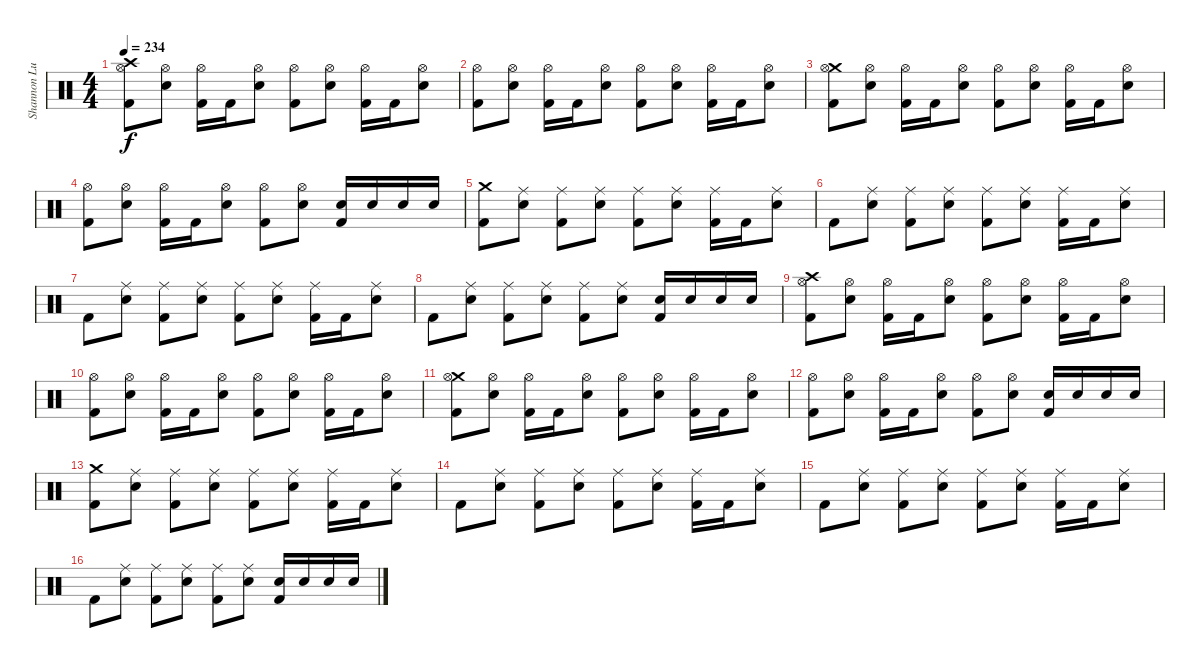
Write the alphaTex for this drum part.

\track ("Shannon Lucas (Drums)" "Shannon Lu") {instrument percussion}
\staff {score}
\articulation defaults
\ts (4 4)
\tempo 234
\clef neutral
\ks c
("Crash high (hit)" "Hi-Hat (open)" "Kick (hit) 2").8{dy f} ("Hi-Hat (open)" "Electric Snare (hit)").8 ("Hi-Hat (open)" "Kick (hit) 2").16 "Kick (hit) 2".16 ("Hi-Hat (open)" "Electric Snare (hit)").8 ("Hi-Hat (open)" "Kick (hit) 2").8 ("Hi-Hat (open)" "Electric Snare (hit)").8 ("Hi-Hat (open)" "Kick (hit) 2").16 "Kick (hit) 2".16 ("Hi-Hat (open)" "Electric Snare (hit)").8 |
("Hi-Hat (open)" "Kick (hit) 2").8 ("Hi-Hat (open)" "Electric Snare (hit)").8 ("Hi-Hat (open)" "Kick (hit) 2").16 "Kick (hit) 2".16 ("Hi-Hat (open)" "Electric Snare (hit)").8 ("Hi-Hat (open)" "Kick (hit) 2").8 ("Hi-Hat (open)" "Electric Snare (hit)").8 ("Hi-Hat (open)" "Kick (hit) 2").16 "Kick (hit) 2".16 ("Hi-Hat (open)" "Electric Snare (hit)").8 |
("Crash medium (hit)" "Hi-Hat (open)" "Kick (hit) 2").8 ("Hi-Hat (open)" "Electric Snare (hit)").8 ("Hi-Hat (open)" "Kick (hit) 2").16 "Kick (hit) 2".16 ("Hi-Hat (open)" "Electric Snare (hit)").8 ("Hi-Hat (open)" "Kick (hit) 2").8 ("Hi-Hat (open)" "Electric Snare (hit)").8 ("Hi-Hat (open)" "Kick (hit) 2").16 "Kick (hit) 2".16 ("Hi-Hat (open)" "Electric Snare (hit)").8 |
("Hi-Hat (open)" "Kick (hit) 2").8 ("Hi-Hat (open)" "Electric Snare (hit)").8 ("Hi-Hat (open)" "Kick (hit) 2").16 "Kick (hit) 2".16 ("Hi-Hat (open)" "Electric Snare (hit)").8 ("Hi-Hat (open)" "Kick (hit) 2").8 ("Hi-Hat (open)" "Electric Snare (hit)").8 ("Electric Snare (hit)" "Kick (hit) 2").16 "Electric Snare (hit)".16 "Electric Snare (hit)".16 "Electric Snare (hit)".16 |
("Crash medium (hit)" "Kick (hit) 2").8 ("Ride (middle)" "Electric Snare (hit)").8 ("Ride (middle)" "Kick (hit) 2").8 ("Ride (middle)" "Electric Snare (hit)").8 ("Ride (middle)" "Kick (hit) 2").8 ("Ride (middle)" "Electric Snare (hit)").8 ("Ride (middle)" "Kick (hit) 2").16 "Kick (hit) 2".16 ("Ride (middle)" "Electric Snare (hit)").8 |
"Kick (hit) 2".8 ("Ride (middle)" "Electric Snare (hit)").8 ("Ride (middle)" "Kick (hit) 2").8 ("Ride (middle)" "Electric Snare (hit)").8 ("Ride (middle)" "Kick (hit) 2").8 ("Ride (middle)" "Electric Snare (hit)").8 ("Ride (middle)" "Kick (hit) 2").16 "Kick (hit) 2".16 ("Ride (middle)" "Electric Snare (hit)").8 |
"Kick (hit) 2".8 ("Ride (middle)" "Electric Snare (hit)").8 ("Ride (middle)" "Kick (hit) 2").8 ("Ride (middle)" "Electric Snare (hit)").8 ("Ride (middle)" "Kick (hit) 2").8 ("Ride (middle)" "Electric Snare (hit)").8 ("Ride (middle)" "Kick (hit) 2").16 "Kick (hit) 2".16 ("Ride (middle)" "Electric Snare (hit)").8 |
"Kick (hit) 2".8 ("Ride (middle)" "Electric Snare (hit)").8 ("Ride (middle)" "Kick (hit) 2").8 ("Ride (middle)" "Electric Snare (hit)").8 ("Ride (middle)" "Kick (hit) 2").8 ("Ride (middle)" "Electric Snare (hit)").8 ("Electric Snare (hit)" "Kick (hit) 2").16 "Electric Snare (hit)".16 "Electric Snare (hit)".16 "Electric Snare (hit)".16 |
("Crash high (hit)" "Hi-Hat (open)" "Kick (hit) 2").8 ("Hi-Hat (open)" "Electric Snare (hit)").8 ("Hi-Hat (open)" "Kick (hit) 2").16 "Kick (hit) 2".16 ("Hi-Hat (open)" "Electric Snare (hit)").8 ("Hi-Hat (open)" "Kick (hit) 2").8 ("Hi-Hat (open)" "Electric Snare (hit)").8 ("Hi-Hat (open)" "Kick (hit) 2").16 "Kick (hit) 2".16 ("Hi-Hat (open)" "Electric Snare (hit)").8 |
("Hi-Hat (open)" "Kick (hit) 2").8 ("Hi-Hat (open)" "Electric Snare (hit)").8 ("Hi-Hat (open)" "Kick (hit) 2").16 "Kick (hit) 2".16 ("Hi-Hat (open)" "Electric Snare (hit)").8 ("Hi-Hat (open)" "Kick (hit) 2").8 ("Hi-Hat (open)" "Electric Snare (hit)").8 ("Hi-Hat (open)" "Kick (hit) 2").16 "Kick (hit) 2".16 ("Hi-Hat (open)" "Electric Snare (hit)").8 |
("Crash medium (hit)" "Hi-Hat (open)" "Kick (hit) 2").8 ("Hi-Hat (open)" "Electric Snare (hit)").8 ("Hi-Hat (open)" "Kick (hit) 2").16 "Kick (hit) 2".16 ("Hi-Hat (open)" "Electric Snare (hit)").8 ("Hi-Hat (open)" "Kick (hit) 2").8 ("Hi-Hat (open)" "Electric Snare (hit)").8 ("Hi-Hat (open)" "Kick (hit) 2").16 "Kick (hit) 2".16 ("Hi-Hat (open)" "Electric Snare (hit)").8 |
("Hi-Hat (open)" "Kick (hit) 2").8 ("Hi-Hat (open)" "Electric Snare (hit)").8 ("Hi-Hat (open)" "Kick (hit) 2").16 "Kick (hit) 2".16 ("Hi-Hat (open)" "Electric Snare (hit)").8 ("Hi-Hat (open)" "Kick (hit) 2").8 ("Hi-Hat (open)" "Electric Snare (hit)").8 ("Electric Snare (hit)" "Kick (hit) 2").16 "Electric Snare (hit)".16 "Electric Snare (hit)".16 "Electric Snare (hit)".16 |
("Crash medium (hit)" "Kick (hit) 2").8 ("Ride (middle)" "Electric Snare (hit)").8 ("Ride (middle)" "Kick (hit) 2").8 ("Ride (middle)" "Electric Snare (hit)").8 ("Ride (middle)" "Kick (hit) 2").8 ("Ride (middle)" "Electric Snare (hit)").8 ("Ride (middle)" "Kick (hit) 2").16 "Kick (hit) 2".16 ("Ride (middle)" "Electric Snare (hit)").8 |
"Kick (hit) 2".8 ("Ride (middle)" "Electric Snare (hit)").8 ("Ride (middle)" "Kick (hit) 2").8 ("Ride (middle)" "Electric Snare (hit)").8 ("Ride (middle)" "Kick (hit) 2").8 ("Ride (middle)" "Electric Snare (hit)").8 ("Ride (middle)" "Kick (hit) 2").16 "Kick (hit) 2".16 ("Ride (middle)" "Electric Snare (hit)").8 |
"Kick (hit) 2".8 ("Ride (middle)" "Electric Snare (hit)").8 ("Ride (middle)" "Kick (hit) 2").8 ("Ride (middle)" "Electric Snare (hit)").8 ("Ride (middle)" "Kick (hit) 2").8 ("Ride (middle)" "Electric Snare (hit)").8 ("Ride (middle)" "Kick (hit) 2").16 "Kick (hit) 2".16 ("Ride (middle)" "Electric Snare (hit)").8 |
"Kick (hit) 2".8 ("Ride (middle)" "Electric Snare (hit)").8 ("Ride (middle)" "Kick (hit) 2").8 ("Ride (middle)" "Electric Snare (hit)").8 ("Ride (middle)" "Kick (hit) 2").8 ("Ride (middle)" "Electric Snare (hit)").8 ("Electric Snare (hit)" "Kick (hit) 2").16 "Electric Snare (hit)".16 "Electric Snare (hit)".16 "Electric Snare (hit)".16
